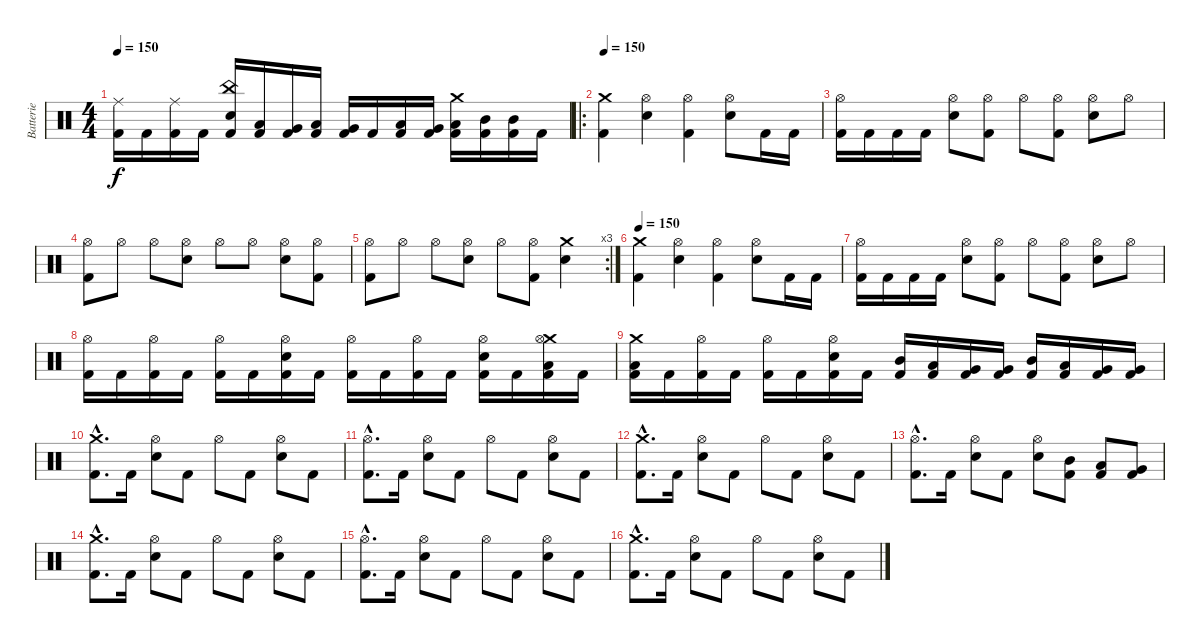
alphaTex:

\track ("Batterie" "Batterie") {instrument percussion}
\staff {score}
\articulation defaults
\ts (4 4)
\tempo 150
\clef neutral
\ks c
("Ride (middle)" "Kick (hit) 2").16{dy f} "Kick (hit) 2".16 ("Ride (middle)" "Kick (hit) 2").16 "Kick (hit) 2".16 ("China (hit)" "Electric Snare (hit)" "Kick (hit) 2").16 ("Low Tom (hit)" "Kick (hit) 2").16 ("Very Low Tom (hit)" "Kick (hit) 2").16 ("Low Tom (hit)" "Kick (hit) 2").16 ("Very Low Tom (hit)" "Kick (hit) 2").16 "Kick (hit) 2".16 ("Low Tom (hit)" "Kick (hit) 2").16 ("Very Low Tom (hit)" "Kick (hit) 2").16 ("Crash medium (hit)" "Low Tom (hit)" "Kick (hit) 2").16 ("Mid Tom (hit)" "Kick (hit) 2").16 ("Mid Tom (hit)" "Kick (hit) 2").16 "Kick (hit) 2".16 |
\ro
\tempo 150
("Crash medium (hit)" "Kick (hit) 2").4 ("Hi-Hat (open)" "Electric Snare (hit)").4 ("Hi-Hat (open)" "Kick (hit) 2").4 ("Hi-Hat (open)" "Electric Snare (hit)").8 "Kick (hit) 2".16 "Kick (hit) 2".16 |
("Hi-Hat (open)" "Kick (hit) 2").16 "Kick (hit) 2".16 "Kick (hit) 2".16 "Kick (hit) 2".16 ("Hi-Hat (open)" "Electric Snare (hit)").8 ("Hi-Hat (open)" "Kick (hit) 2").8 "Hi-Hat (open)".8 ("Hi-Hat (open)" "Kick (hit) 2").8 ("Hi-Hat (open)" "Electric Snare (hit)").8 "Hi-Hat (open)".8 |
("Hi-Hat (open)" "Kick (hit) 2").8 "Hi-Hat (open)".8 "Hi-Hat (open)".8 ("Hi-Hat (open)" "Electric Snare (hit)").8 "Hi-Hat (open)".8 "Hi-Hat (open)".8 ("Hi-Hat (open)" "Electric Snare (hit)").8 ("Hi-Hat (open)" "Kick (hit) 2").8 |
\rc 3
("Hi-Hat (open)" "Kick (hit) 2").8 "Hi-Hat (open)".8 "Hi-Hat (open)".8 ("Hi-Hat (open)" "Electric Snare (hit)").8 "Hi-Hat (open)".8 ("Hi-Hat (open)" "Kick (hit) 2").8 ("Crash medium (hit)" "Electric Snare (hit)").4 |
\tempo 150
("Crash medium (hit)" "Kick (hit) 2").4 ("Hi-Hat (open)" "Electric Snare (hit)").4 ("Hi-Hat (open)" "Kick (hit) 2").4 ("Hi-Hat (open)" "Electric Snare (hit)").8 "Kick (hit) 2".16 "Kick (hit) 2".16 |
("Hi-Hat (open)" "Kick (hit) 2").16 "Kick (hit) 2".16 "Kick (hit) 2".16 "Kick (hit) 2".16 ("Hi-Hat (open)" "Electric Snare (hit)").8 ("Hi-Hat (open)" "Kick (hit) 2").8 "Hi-Hat (open)".8 ("Hi-Hat (open)" "Kick (hit) 2").8 ("Hi-Hat (open)" "Electric Snare (hit)").8 "Hi-Hat (open)".8 |
("Hi-Hat (open)" "Kick (hit) 2").16 "Kick (hit) 2".16 ("Hi-Hat (open)" "Kick (hit) 2").16 "Kick (hit) 2".16 ("Hi-Hat (open)" "Kick (hit) 2").16 "Kick (hit) 2".16 ("Electric Snare (hit)" "Hi-Hat (open)" "Kick (hit) 2").16 "Kick (hit) 2".16 ("Hi-Hat (open)" "Kick (hit) 2").16 "Kick (hit) 2".16 ("Hi-Hat (open)" "Kick (hit) 2").16 "Kick (hit) 2".16 ("Electric Snare (hit)" "Hi-Hat (open)" "Kick (hit) 2").16 "Kick (hit) 2".16 ("Crash medium (hit)" "Low Tom (hit)" "Hi-Hat (open)" "Kick (hit) 2").16 "Kick (hit) 2".16 |
("Crash medium (hit)" "Low Tom (hit)" "Kick (hit) 2").16 "Kick (hit) 2".16 ("Hi-Hat (open)" "Kick (hit) 2").16 "Kick (hit) 2".16 ("Hi-Hat (open)" "Kick (hit) 2").16 "Kick (hit) 2".16 ("Hi-Hat (open)" "Electric Snare (hit)" "Kick (hit) 2").16 "Kick (hit) 2".16 ("Mid Tom (hit)" "Kick (hit) 2").16 ("Low Tom (hit)" "Kick (hit) 2").16 ("Very Low Tom (hit)" "Kick (hit) 2").16 ("Very Low Tom (hit)" "Kick (hit) 2").16 ("Mid Tom (hit)" "Kick (hit) 2").16 ("Low Tom (hit)" "Kick (hit) 2").16 ("Very Low Tom (hit)" "Kick (hit) 2").16 ("Very Low Tom (hit)" "Kick (hit) 2").16 |
("Crash medium (hit)"{hac} "Kick (hit) 2"{hac}).8{d} "Kick (hit) 2".16 ("Hi-Hat (open)" "Electric Snare (hit)").8 "Kick (hit) 2".8 "Hi-Hat (open)".8 "Kick (hit) 2".8 ("Hi-Hat (open)" "Electric Snare (hit)").8 "Kick (hit) 2".8 |
("Hi-Hat (open)"{hac} "Kick (hit) 2"{hac}).8{d} "Kick (hit) 2".16 ("Hi-Hat (open)" "Electric Snare (hit)").8 "Kick (hit) 2".8 "Hi-Hat (open)".8 "Kick (hit) 2".8 ("Hi-Hat (open)" "Electric Snare (hit)").8 "Kick (hit) 2".8 |
("Crash medium (hit)"{hac} "Kick (hit) 2"{hac}).8{d} "Kick (hit) 2".16 ("Hi-Hat (open)" "Electric Snare (hit)").8 "Kick (hit) 2".8 "Hi-Hat (open)".8 "Kick (hit) 2".8 ("Hi-Hat (open)" "Electric Snare (hit)").8 "Kick (hit) 2".8 |
("Hi-Hat (open)"{hac} "Kick (hit) 2"{hac}).8{d} "Kick (hit) 2".16 ("Hi-Hat (open)" "Electric Snare (hit)").8 "Kick (hit) 2".8 ("Hi-Hat (open)" "Electric Snare (hit)").8 ("Mid Tom (hit)" "Kick (hit) 2").8 ("Low Tom (hit)" "Kick (hit) 2").8 ("Very Low Tom (hit)" "Kick (hit) 2").8 |
("Crash medium (hit)"{hac} "Kick (hit) 2"{hac}).8{d} "Kick (hit) 2".16 ("Hi-Hat (open)" "Electric Snare (hit)").8 "Kick (hit) 2".8 "Hi-Hat (open)".8 "Kick (hit) 2".8 ("Hi-Hat (open)" "Electric Snare (hit)").8 "Kick (hit) 2".8 |
("Hi-Hat (open)"{hac} "Kick (hit) 2"{hac}).8{d} "Kick (hit) 2".16 ("Hi-Hat (open)" "Electric Snare (hit)").8 "Kick (hit) 2".8 "Hi-Hat (open)".8 "Kick (hit) 2".8 ("Hi-Hat (open)" "Electric Snare (hit)").8 "Kick (hit) 2".8 |
("Crash medium (hit)"{hac} "Kick (hit) 2"{hac}).8{d} "Kick (hit) 2".16 ("Hi-Hat (open)" "Electric Snare (hit)").8 "Kick (hit) 2".8 "Hi-Hat (open)".8 "Kick (hit) 2".8 ("Hi-Hat (open)" "Electric Snare (hit)").8 "Kick (hit) 2".8
